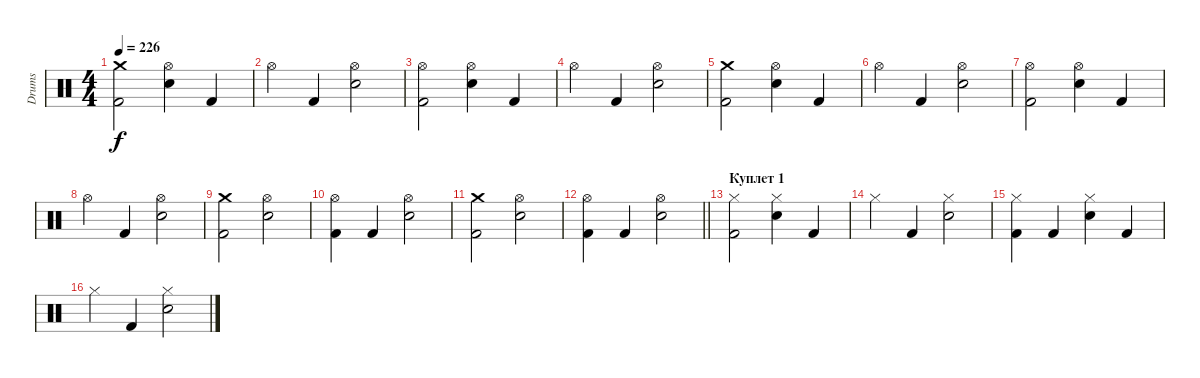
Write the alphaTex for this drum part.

\track ("Drums" "Drums") {instrument percussion}
\staff
\articulation defaults
\ts (4 4)
\tempo 226
\clef neutral
\ks c
("Crash medium (hit)" "Kick (hit) 2").2{dy f} ("Hi-Hat (open)" "Snare (hit) 2").4 "Kick (hit) 2".4 |
"Hi-Hat (open)".4 "Kick (hit) 2".4 ("Hi-Hat (open)" "Snare (hit) 2").2 |
("Hi-Hat (open)" "Kick (hit) 2").2 ("Hi-Hat (open)" "Snare (hit) 2").4 "Kick (hit) 2".4 |
"Hi-Hat (open)".4 "Kick (hit) 2".4 ("Hi-Hat (open)" "Snare (hit) 2").2 |
("Crash medium (hit)" "Kick (hit) 2").2 ("Hi-Hat (open)" "Snare (hit) 2").4 "Kick (hit) 2".4 |
"Hi-Hat (open)".4 "Kick (hit) 2".4 ("Hi-Hat (open)" "Snare (hit) 2").2 |
("Hi-Hat (open)" "Kick (hit) 2").2 ("Hi-Hat (open)" "Snare (hit) 2").4 "Kick (hit) 2".4 |
"Hi-Hat (open)".4 "Kick (hit) 2".4 ("Hi-Hat (open)" "Snare (hit) 2").2 |
("Crash medium (hit)" "Kick (hit) 2").2 ("Hi-Hat (open)" "Snare (hit) 2").2 |
("Hi-Hat (open)" "Kick (hit) 2").4 "Kick (hit) 2".4 ("Hi-Hat (open)" "Snare (hit) 2").2 |
("Crash medium (hit)" "Kick (hit) 2").2 ("Hi-Hat (open)" "Snare (hit) 2").2 |
\barLineRight lightlight
("Hi-Hat (open)" "Kick (hit) 2").4 "Kick (hit) 2".4 ("Hi-Hat (open)" "Snare (hit) 2").2 |
\section ("" "Куплет 1")
("Hi-Hat (closed)" "Kick (hit) 2").2 ("Hi-Hat (closed)" "Snare (hit) 2").4 "Kick (hit) 2".4 |
"Hi-Hat (closed)".4 "Kick (hit) 2".4 ("Hi-Hat (closed)" "Snare (hit) 2").2 |
("Hi-Hat (closed)" "Kick (hit) 2").4 "Kick (hit) 2".4 ("Hi-Hat (closed)" "Snare (hit) 2").4 "Kick (hit) 2".4 |
"Hi-Hat (closed)".4 "Kick (hit) 2".4 ("Hi-Hat (closed)" "Snare (hit) 2").2
